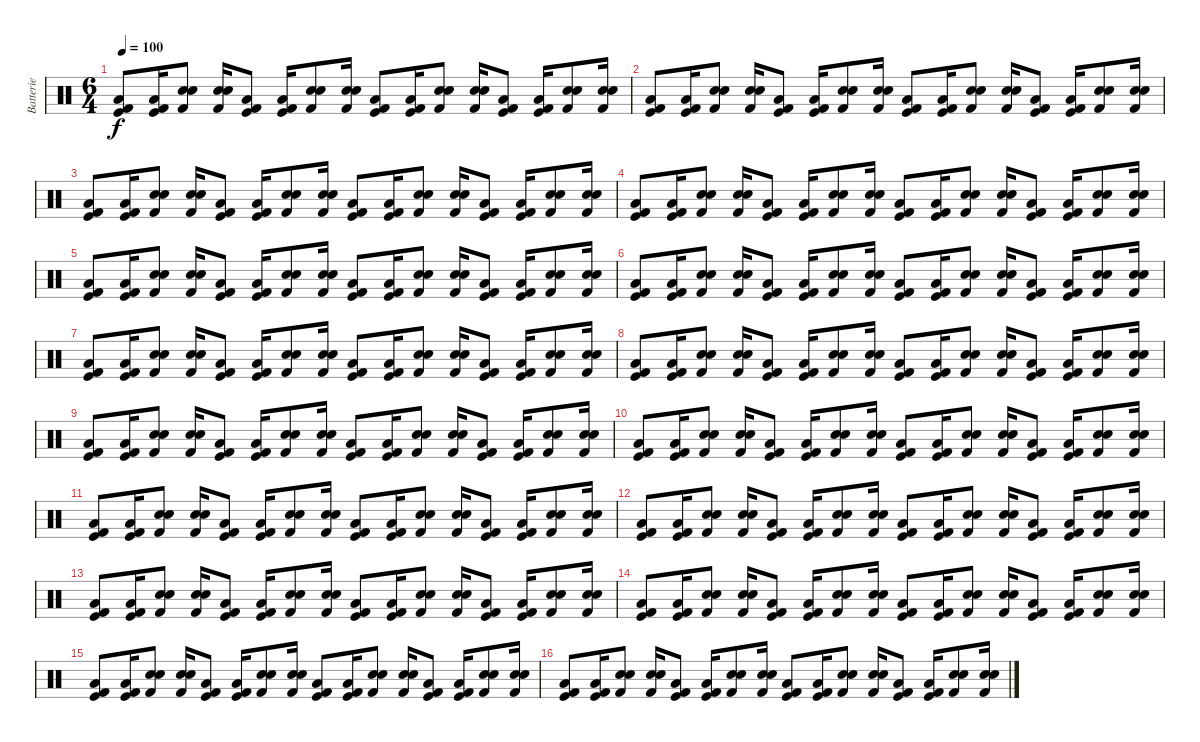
\track ("Batterie" "Batterie") {instrument percussion}
\staff {score}
\articulation defaults
\ts (6 4)
\tempo 100
\clef neutral
\ks c
("Kick (hit)" "Low Tom (hit)" "Kick (hit) 2").8{dy f} ("Kick (hit)" "Low Tom (hit)" "Kick (hit) 2").16 ("Snare (hit) 2" "Kick (hit) 2" "Snare (hit) 2").8 ("Snare (hit) 2" "Kick (hit) 2" "Snare (hit) 2").16 ("Kick (hit)" "Low Tom (hit)" "Kick (hit) 2").8 ("Kick (hit)" "Low Tom (hit)" "Kick (hit) 2").16 ("Snare (hit) 2" "Kick (hit) 2" "Snare (hit) 2").8 ("Snare (hit) 2" "Kick (hit) 2" "Snare (hit) 2").16 ("Kick (hit)" "Low Tom (hit)" "Kick (hit) 2").8 ("Kick (hit)" "Low Tom (hit)" "Kick (hit) 2").16 ("Snare (hit) 2" "Kick (hit) 2" "Snare (hit) 2").8 ("Snare (hit) 2" "Kick (hit) 2" "Snare (hit) 2").16 ("Kick (hit)" "Low Tom (hit)" "Kick (hit) 2").8 ("Kick (hit)" "Low Tom (hit)" "Kick (hit) 2").16 ("Snare (hit) 2" "Kick (hit) 2" "Snare (hit) 2").8 ("Snare (hit) 2" "Kick (hit) 2" "Snare (hit) 2").16 |
("Kick (hit)" "Low Tom (hit)" "Kick (hit) 2").8 ("Kick (hit)" "Low Tom (hit)" "Kick (hit) 2").16 ("Snare (hit) 2" "Kick (hit) 2" "Snare (hit) 2").8 ("Snare (hit) 2" "Kick (hit) 2" "Snare (hit) 2").16 ("Kick (hit)" "Low Tom (hit)" "Kick (hit) 2").8 ("Kick (hit)" "Low Tom (hit)" "Kick (hit) 2").16 ("Snare (hit) 2" "Kick (hit) 2" "Snare (hit) 2").8 ("Snare (hit) 2" "Kick (hit) 2" "Snare (hit) 2").16 ("Kick (hit)" "Low Tom (hit)" "Kick (hit) 2").8 ("Kick (hit)" "Low Tom (hit)" "Kick (hit) 2").16 ("Snare (hit) 2" "Kick (hit) 2" "Snare (hit) 2").8 ("Snare (hit) 2" "Kick (hit) 2" "Snare (hit) 2").16 ("Kick (hit)" "Low Tom (hit)" "Kick (hit) 2").8 ("Kick (hit)" "Low Tom (hit)" "Kick (hit) 2").16 ("Snare (hit) 2" "Kick (hit) 2" "Snare (hit) 2").8 ("Snare (hit) 2" "Kick (hit) 2" "Snare (hit) 2").16 |
("Kick (hit)" "Low Tom (hit)" "Kick (hit) 2").8 ("Kick (hit)" "Low Tom (hit)" "Kick (hit) 2").16 ("Snare (hit) 2" "Kick (hit) 2" "Snare (hit) 2").8 ("Snare (hit) 2" "Kick (hit) 2" "Snare (hit) 2").16 ("Kick (hit)" "Low Tom (hit)" "Kick (hit) 2").8 ("Kick (hit)" "Low Tom (hit)" "Kick (hit) 2").16 ("Snare (hit) 2" "Kick (hit) 2" "Snare (hit) 2").8 ("Snare (hit) 2" "Kick (hit) 2" "Snare (hit) 2").16 ("Kick (hit)" "Low Tom (hit)" "Kick (hit) 2").8 ("Kick (hit)" "Low Tom (hit)" "Kick (hit) 2").16 ("Snare (hit) 2" "Kick (hit) 2" "Snare (hit) 2").8 ("Snare (hit) 2" "Kick (hit) 2" "Snare (hit) 2").16 ("Kick (hit)" "Low Tom (hit)" "Kick (hit) 2").8 ("Kick (hit)" "Low Tom (hit)" "Kick (hit) 2").16 ("Snare (hit) 2" "Kick (hit) 2" "Snare (hit) 2").8 ("Snare (hit) 2" "Kick (hit) 2" "Snare (hit) 2").16 |
("Kick (hit)" "Low Tom (hit)" "Kick (hit) 2").8 ("Kick (hit)" "Low Tom (hit)" "Kick (hit) 2").16 ("Snare (hit) 2" "Kick (hit) 2" "Snare (hit) 2").8 ("Snare (hit) 2" "Kick (hit) 2" "Snare (hit) 2").16 ("Kick (hit)" "Low Tom (hit)" "Kick (hit) 2").8 ("Kick (hit)" "Low Tom (hit)" "Kick (hit) 2").16 ("Snare (hit) 2" "Kick (hit) 2" "Snare (hit) 2").8 ("Snare (hit) 2" "Kick (hit) 2" "Snare (hit) 2").16 ("Kick (hit)" "Low Tom (hit)" "Kick (hit) 2").8 ("Kick (hit)" "Low Tom (hit)" "Kick (hit) 2").16 ("Snare (hit) 2" "Kick (hit) 2" "Snare (hit) 2").8 ("Snare (hit) 2" "Kick (hit) 2" "Snare (hit) 2").16 ("Kick (hit)" "Low Tom (hit)" "Kick (hit) 2").8 ("Kick (hit)" "Low Tom (hit)" "Kick (hit) 2").16 ("Snare (hit) 2" "Kick (hit) 2" "Snare (hit) 2").8 ("Snare (hit) 2" "Kick (hit) 2" "Snare (hit) 2").16 |
("Kick (hit)" "Low Tom (hit)" "Kick (hit) 2").8 ("Kick (hit)" "Low Tom (hit)" "Kick (hit) 2").16 ("Snare (hit) 2" "Kick (hit) 2" "Snare (hit) 2").8 ("Snare (hit) 2" "Kick (hit) 2" "Snare (hit) 2").16 ("Kick (hit)" "Low Tom (hit)" "Kick (hit) 2").8 ("Kick (hit)" "Low Tom (hit)" "Kick (hit) 2").16 ("Snare (hit) 2" "Kick (hit) 2" "Snare (hit) 2").8 ("Snare (hit) 2" "Kick (hit) 2" "Snare (hit) 2").16 ("Kick (hit)" "Low Tom (hit)" "Kick (hit) 2").8 ("Kick (hit)" "Low Tom (hit)" "Kick (hit) 2").16 ("Snare (hit) 2" "Kick (hit) 2" "Snare (hit) 2").8 ("Snare (hit) 2" "Kick (hit) 2" "Snare (hit) 2").16 ("Kick (hit)" "Low Tom (hit)" "Kick (hit) 2").8 ("Kick (hit)" "Low Tom (hit)" "Kick (hit) 2").16 ("Snare (hit) 2" "Kick (hit) 2" "Snare (hit) 2").8 ("Snare (hit) 2" "Kick (hit) 2" "Snare (hit) 2").16 |
("Kick (hit)" "Low Tom (hit)" "Kick (hit) 2").8 ("Kick (hit)" "Low Tom (hit)" "Kick (hit) 2").16 ("Snare (hit) 2" "Kick (hit) 2" "Snare (hit) 2").8 ("Snare (hit) 2" "Kick (hit) 2" "Snare (hit) 2").16 ("Kick (hit)" "Low Tom (hit)" "Kick (hit) 2").8 ("Kick (hit)" "Low Tom (hit)" "Kick (hit) 2").16 ("Snare (hit) 2" "Kick (hit) 2" "Snare (hit) 2").8 ("Snare (hit) 2" "Kick (hit) 2" "Snare (hit) 2").16 ("Kick (hit)" "Low Tom (hit)" "Kick (hit) 2").8 ("Kick (hit)" "Low Tom (hit)" "Kick (hit) 2").16 ("Snare (hit) 2" "Kick (hit) 2" "Snare (hit) 2").8 ("Snare (hit) 2" "Kick (hit) 2" "Snare (hit) 2").16 ("Kick (hit)" "Low Tom (hit)" "Kick (hit) 2").8 ("Kick (hit)" "Low Tom (hit)" "Kick (hit) 2").16 ("Snare (hit) 2" "Kick (hit) 2" "Snare (hit) 2").8 ("Snare (hit) 2" "Kick (hit) 2" "Snare (hit) 2").16 |
("Kick (hit)" "Low Tom (hit)" "Kick (hit) 2").8 ("Kick (hit)" "Low Tom (hit)" "Kick (hit) 2").16 ("Snare (hit) 2" "Kick (hit) 2" "Snare (hit) 2").8 ("Snare (hit) 2" "Kick (hit) 2" "Snare (hit) 2").16 ("Kick (hit)" "Low Tom (hit)" "Kick (hit) 2").8 ("Kick (hit)" "Low Tom (hit)" "Kick (hit) 2").16 ("Snare (hit) 2" "Kick (hit) 2" "Snare (hit) 2").8 ("Snare (hit) 2" "Kick (hit) 2" "Snare (hit) 2").16 ("Kick (hit)" "Low Tom (hit)" "Kick (hit) 2").8 ("Kick (hit)" "Low Tom (hit)" "Kick (hit) 2").16 ("Snare (hit) 2" "Kick (hit) 2" "Snare (hit) 2").8 ("Snare (hit) 2" "Kick (hit) 2" "Snare (hit) 2").16 ("Kick (hit)" "Low Tom (hit)" "Kick (hit) 2").8 ("Kick (hit)" "Low Tom (hit)" "Kick (hit) 2").16 ("Snare (hit) 2" "Kick (hit) 2" "Snare (hit) 2").8 ("Snare (hit) 2" "Kick (hit) 2" "Snare (hit) 2").16 |
("Kick (hit)" "Low Tom (hit)" "Kick (hit) 2").8 ("Kick (hit)" "Low Tom (hit)" "Kick (hit) 2").16 ("Snare (hit) 2" "Kick (hit) 2" "Snare (hit) 2").8 ("Snare (hit) 2" "Kick (hit) 2" "Snare (hit) 2").16 ("Kick (hit)" "Low Tom (hit)" "Kick (hit) 2").8 ("Kick (hit)" "Low Tom (hit)" "Kick (hit) 2").16 ("Snare (hit) 2" "Kick (hit) 2" "Snare (hit) 2").8 ("Snare (hit) 2" "Kick (hit) 2" "Snare (hit) 2").16 ("Kick (hit)" "Low Tom (hit)" "Kick (hit) 2").8 ("Kick (hit)" "Low Tom (hit)" "Kick (hit) 2").16 ("Snare (hit) 2" "Kick (hit) 2" "Snare (hit) 2").8 ("Snare (hit) 2" "Kick (hit) 2" "Snare (hit) 2").16 ("Kick (hit)" "Low Tom (hit)" "Kick (hit) 2").8 ("Kick (hit)" "Low Tom (hit)" "Kick (hit) 2").16 ("Snare (hit) 2" "Kick (hit) 2" "Snare (hit) 2").8 ("Snare (hit) 2" "Kick (hit) 2" "Snare (hit) 2").16 |
("Kick (hit)" "Low Tom (hit)" "Kick (hit) 2").8 ("Kick (hit)" "Low Tom (hit)" "Kick (hit) 2").16 ("Snare (hit) 2" "Kick (hit) 2" "Snare (hit) 2").8 ("Snare (hit) 2" "Kick (hit) 2" "Snare (hit) 2").16 ("Kick (hit)" "Low Tom (hit)" "Kick (hit) 2").8 ("Kick (hit)" "Low Tom (hit)" "Kick (hit) 2").16 ("Snare (hit) 2" "Kick (hit) 2" "Snare (hit) 2").8 ("Snare (hit) 2" "Kick (hit) 2" "Snare (hit) 2").16 ("Kick (hit)" "Low Tom (hit)" "Kick (hit) 2").8 ("Kick (hit)" "Low Tom (hit)" "Kick (hit) 2").16 ("Snare (hit) 2" "Kick (hit) 2" "Snare (hit) 2").8 ("Snare (hit) 2" "Kick (hit) 2" "Snare (hit) 2").16 ("Kick (hit)" "Low Tom (hit)" "Kick (hit) 2").8 ("Kick (hit)" "Low Tom (hit)" "Kick (hit) 2").16 ("Snare (hit) 2" "Kick (hit) 2" "Snare (hit) 2").8 ("Snare (hit) 2" "Kick (hit) 2" "Snare (hit) 2").16 |
("Kick (hit)" "Low Tom (hit)" "Kick (hit) 2").8 ("Kick (hit)" "Low Tom (hit)" "Kick (hit) 2").16 ("Snare (hit) 2" "Kick (hit) 2" "Snare (hit) 2").8 ("Snare (hit) 2" "Kick (hit) 2" "Snare (hit) 2").16 ("Kick (hit)" "Low Tom (hit)" "Kick (hit) 2").8 ("Kick (hit)" "Low Tom (hit)" "Kick (hit) 2").16 ("Snare (hit) 2" "Kick (hit) 2" "Snare (hit) 2").8 ("Snare (hit) 2" "Kick (hit) 2" "Snare (hit) 2").16 ("Kick (hit)" "Low Tom (hit)" "Kick (hit) 2").8 ("Kick (hit)" "Low Tom (hit)" "Kick (hit) 2").16 ("Snare (hit) 2" "Kick (hit) 2" "Snare (hit) 2").8 ("Snare (hit) 2" "Kick (hit) 2" "Snare (hit) 2").16 ("Kick (hit)" "Low Tom (hit)" "Kick (hit) 2").8 ("Kick (hit)" "Low Tom (hit)" "Kick (hit) 2").16 ("Snare (hit) 2" "Kick (hit) 2" "Snare (hit) 2").8 ("Snare (hit) 2" "Kick (hit) 2" "Snare (hit) 2").16 |
("Kick (hit)" "Low Tom (hit)" "Kick (hit) 2").8 ("Kick (hit)" "Low Tom (hit)" "Kick (hit) 2").16 ("Snare (hit) 2" "Kick (hit) 2" "Snare (hit) 2").8 ("Snare (hit) 2" "Kick (hit) 2" "Snare (hit) 2").16 ("Kick (hit)" "Low Tom (hit)" "Kick (hit) 2").8 ("Kick (hit)" "Low Tom (hit)" "Kick (hit) 2").16 ("Snare (hit) 2" "Kick (hit) 2" "Snare (hit) 2").8 ("Snare (hit) 2" "Kick (hit) 2" "Snare (hit) 2").16 ("Kick (hit)" "Low Tom (hit)" "Kick (hit) 2").8 ("Kick (hit)" "Low Tom (hit)" "Kick (hit) 2").16 ("Snare (hit) 2" "Kick (hit) 2" "Snare (hit) 2").8 ("Snare (hit) 2" "Kick (hit) 2" "Snare (hit) 2").16 ("Kick (hit)" "Low Tom (hit)" "Kick (hit) 2").8 ("Kick (hit)" "Low Tom (hit)" "Kick (hit) 2").16 ("Snare (hit) 2" "Kick (hit) 2" "Snare (hit) 2").8 ("Snare (hit) 2" "Kick (hit) 2" "Snare (hit) 2").16 |
("Kick (hit)" "Low Tom (hit)" "Kick (hit) 2").8 ("Kick (hit)" "Low Tom (hit)" "Kick (hit) 2").16 ("Snare (hit) 2" "Kick (hit) 2" "Snare (hit) 2").8 ("Snare (hit) 2" "Kick (hit) 2" "Snare (hit) 2").16 ("Kick (hit)" "Low Tom (hit)" "Kick (hit) 2").8 ("Kick (hit)" "Low Tom (hit)" "Kick (hit) 2").16 ("Snare (hit) 2" "Kick (hit) 2" "Snare (hit) 2").8 ("Snare (hit) 2" "Kick (hit) 2" "Snare (hit) 2").16 ("Kick (hit)" "Low Tom (hit)" "Kick (hit) 2").8 ("Kick (hit)" "Low Tom (hit)" "Kick (hit) 2").16 ("Snare (hit) 2" "Kick (hit) 2" "Snare (hit) 2").8 ("Snare (hit) 2" "Kick (hit) 2" "Snare (hit) 2").16 ("Kick (hit)" "Low Tom (hit)" "Kick (hit) 2").8 ("Kick (hit)" "Low Tom (hit)" "Kick (hit) 2").16 ("Snare (hit) 2" "Kick (hit) 2" "Snare (hit) 2").8 ("Snare (hit) 2" "Kick (hit) 2" "Snare (hit) 2").16 |
("Kick (hit)" "Low Tom (hit)" "Kick (hit) 2").8 ("Kick (hit)" "Low Tom (hit)" "Kick (hit) 2").16 ("Snare (hit) 2" "Kick (hit) 2" "Snare (hit) 2").8 ("Snare (hit) 2" "Kick (hit) 2" "Snare (hit) 2").16 ("Kick (hit)" "Low Tom (hit)" "Kick (hit) 2").8 ("Kick (hit)" "Low Tom (hit)" "Kick (hit) 2").16 ("Snare (hit) 2" "Kick (hit) 2" "Snare (hit) 2").8 ("Snare (hit) 2" "Kick (hit) 2" "Snare (hit) 2").16 ("Kick (hit)" "Low Tom (hit)" "Kick (hit) 2").8 ("Kick (hit)" "Low Tom (hit)" "Kick (hit) 2").16 ("Snare (hit) 2" "Kick (hit) 2" "Snare (hit) 2").8 ("Snare (hit) 2" "Kick (hit) 2" "Snare (hit) 2").16 ("Kick (hit)" "Low Tom (hit)" "Kick (hit) 2").8 ("Kick (hit)" "Low Tom (hit)" "Kick (hit) 2").16 ("Snare (hit) 2" "Kick (hit) 2" "Snare (hit) 2").8 ("Snare (hit) 2" "Kick (hit) 2" "Snare (hit) 2").16 |
("Kick (hit)" "Low Tom (hit)" "Kick (hit) 2").8 ("Kick (hit)" "Low Tom (hit)" "Kick (hit) 2").16 ("Snare (hit) 2" "Kick (hit) 2" "Snare (hit) 2").8 ("Snare (hit) 2" "Kick (hit) 2" "Snare (hit) 2").16 ("Kick (hit)" "Low Tom (hit)" "Kick (hit) 2").8 ("Kick (hit)" "Low Tom (hit)" "Kick (hit) 2").16 ("Snare (hit) 2" "Kick (hit) 2" "Snare (hit) 2").8 ("Snare (hit) 2" "Kick (hit) 2" "Snare (hit) 2").16 ("Kick (hit)" "Low Tom (hit)" "Kick (hit) 2").8 ("Kick (hit)" "Low Tom (hit)" "Kick (hit) 2").16 ("Snare (hit) 2" "Kick (hit) 2" "Snare (hit) 2").8 ("Snare (hit) 2" "Kick (hit) 2" "Snare (hit) 2").16 ("Kick (hit)" "Low Tom (hit)" "Kick (hit) 2").8 ("Kick (hit)" "Low Tom (hit)" "Kick (hit) 2").16 ("Snare (hit) 2" "Kick (hit) 2" "Snare (hit) 2").8 ("Snare (hit) 2" "Kick (hit) 2" "Snare (hit) 2").16 |
("Kick (hit)" "Low Tom (hit)" "Kick (hit) 2").8 ("Kick (hit)" "Low Tom (hit)" "Kick (hit) 2").16 ("Snare (hit) 2" "Kick (hit) 2" "Snare (hit) 2").8 ("Snare (hit) 2" "Kick (hit) 2" "Snare (hit) 2").16 ("Kick (hit)" "Low Tom (hit)" "Kick (hit) 2").8 ("Kick (hit)" "Low Tom (hit)" "Kick (hit) 2").16 ("Snare (hit) 2" "Kick (hit) 2" "Snare (hit) 2").8 ("Snare (hit) 2" "Kick (hit) 2" "Snare (hit) 2").16 ("Kick (hit)" "Low Tom (hit)" "Kick (hit) 2").8 ("Kick (hit)" "Low Tom (hit)" "Kick (hit) 2").16 ("Snare (hit) 2" "Kick (hit) 2" "Snare (hit) 2").8 ("Snare (hit) 2" "Kick (hit) 2" "Snare (hit) 2").16 ("Kick (hit)" "Low Tom (hit)" "Kick (hit) 2").8 ("Kick (hit)" "Low Tom (hit)" "Kick (hit) 2").16 ("Snare (hit) 2" "Kick (hit) 2" "Snare (hit) 2").8 ("Snare (hit) 2" "Kick (hit) 2" "Snare (hit) 2").16 |
("Kick (hit)" "Low Tom (hit)" "Kick (hit) 2").8 ("Kick (hit)" "Low Tom (hit)" "Kick (hit) 2").16 ("Snare (hit) 2" "Kick (hit) 2" "Snare (hit) 2").8 ("Snare (hit) 2" "Kick (hit) 2" "Snare (hit) 2").16 ("Kick (hit)" "Low Tom (hit)" "Kick (hit) 2").8 ("Kick (hit)" "Low Tom (hit)" "Kick (hit) 2").16 ("Snare (hit) 2" "Kick (hit) 2" "Snare (hit) 2").8 ("Snare (hit) 2" "Kick (hit) 2" "Snare (hit) 2").16 ("Kick (hit)" "Low Tom (hit)" "Kick (hit) 2").8 ("Kick (hit)" "Low Tom (hit)" "Kick (hit) 2").16 ("Snare (hit) 2" "Kick (hit) 2" "Snare (hit) 2").8 ("Snare (hit) 2" "Kick (hit) 2" "Snare (hit) 2").16 ("Kick (hit)" "Low Tom (hit)" "Kick (hit) 2").8 ("Kick (hit)" "Low Tom (hit)" "Kick (hit) 2").16 ("Snare (hit) 2" "Kick (hit) 2" "Snare (hit) 2").8 ("Snare (hit) 2" "Kick (hit) 2" "Snare (hit) 2").16
